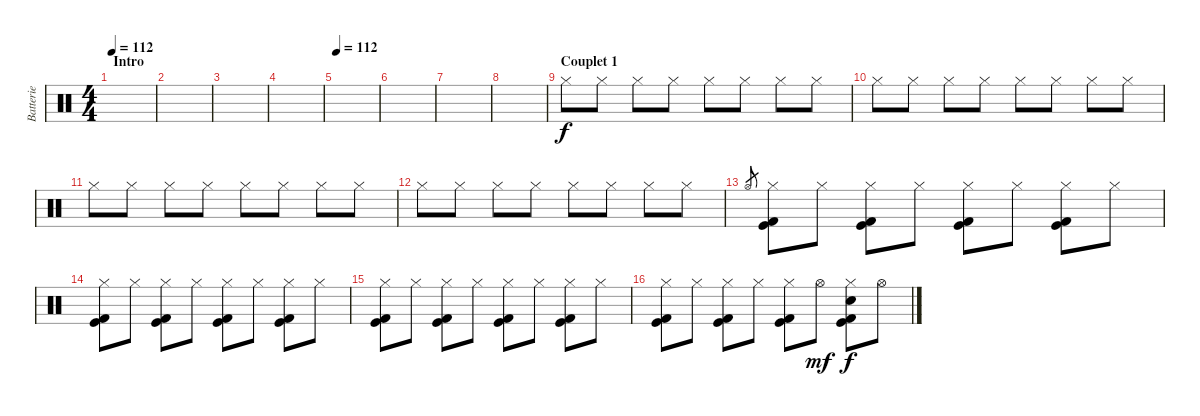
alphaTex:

\track ("Batterie" "Batterie") {instrument percussion}
\staff {score}
\articulation defaults
\ts (4 4)
\section ("" "Intro")
\tempo 112
\tempo 102
\tempo 112
\clef neutral
\ks c
|
|
|
|
\tempo 112
|
|
|
|
\section ("" "Couplet 1")
"Hi-Hat (closed)".8 "Hi-Hat (closed)".8 "Hi-Hat (closed)".8 "Hi-Hat (closed)".8 "Hi-Hat (closed)".8 "Hi-Hat (closed)".8 "Hi-Hat (closed)".8 "Hi-Hat (closed)".8 |
"Hi-Hat (closed)".8 "Hi-Hat (closed)".8 "Hi-Hat (closed)".8 "Hi-Hat (closed)".8 "Hi-Hat (closed)".8 "Hi-Hat (closed)".8 "Hi-Hat (closed)".8 "Hi-Hat (closed)".8 |
"Hi-Hat (closed)".8 "Hi-Hat (closed)".8 "Hi-Hat (closed)".8 "Hi-Hat (closed)".8 "Hi-Hat (closed)".8 "Hi-Hat (closed)".8 "Hi-Hat (closed)".8 "Hi-Hat (closed)".8 |
"Hi-Hat (closed)".8 "Hi-Hat (closed)".8 "Hi-Hat (closed)".8 "Hi-Hat (closed)".8 "Hi-Hat (closed)".8 "Hi-Hat (closed)".8 "Hi-Hat (closed)".8 "Hi-Hat (closed)".8 |
"Hi-Hat (open)".8{gr} ("Hi-Hat (closed)" "Kick (hit)" "Kick (hit) 2").8 "Hi-Hat (closed)".8 ("Hi-Hat (closed)" "Kick (hit)" "Kick (hit) 2").8 "Hi-Hat (closed)".8 ("Hi-Hat (closed)" "Kick (hit)" "Kick (hit) 2").8 "Hi-Hat (closed)".8 ("Hi-Hat (closed)" "Kick (hit)" "Kick (hit) 2").8 "Hi-Hat (closed)".8 |
("Hi-Hat (closed)" "Kick (hit)" "Kick (hit) 2").8 "Hi-Hat (closed)".8 ("Hi-Hat (closed)" "Kick (hit)" "Kick (hit) 2").8 "Hi-Hat (closed)".8 ("Hi-Hat (closed)" "Kick (hit)" "Kick (hit) 2").8 "Hi-Hat (closed)".8 ("Hi-Hat (closed)" "Kick (hit)" "Kick (hit) 2").8 "Hi-Hat (closed)".8 |
("Hi-Hat (closed)" "Kick (hit)" "Kick (hit) 2").8 "Hi-Hat (closed)".8 ("Hi-Hat (closed)" "Kick (hit)" "Kick (hit) 2").8 "Hi-Hat (closed)".8 ("Hi-Hat (closed)" "Kick (hit)" "Kick (hit) 2").8 "Hi-Hat (closed)".8 ("Hi-Hat (closed)" "Kick (hit)" "Kick (hit) 2").8 "Hi-Hat (closed)".8 |
("Hi-Hat (closed)" "Kick (hit)" "Kick (hit) 2").8 "Hi-Hat (closed)".8 ("Hi-Hat (closed)" "Kick (hit)" "Kick (hit) 2").8 "Hi-Hat (closed)".8 ("Hi-Hat (closed)" "Kick (hit)" "Kick (hit) 2").8 "Hi-Hat (open)".8{dy mf} ("Hi-Hat (closed)" "Hand Clap (hit)" "Kick (hit)" "Kick (hit) 2").8{dy f} "Hi-Hat (open)".8
